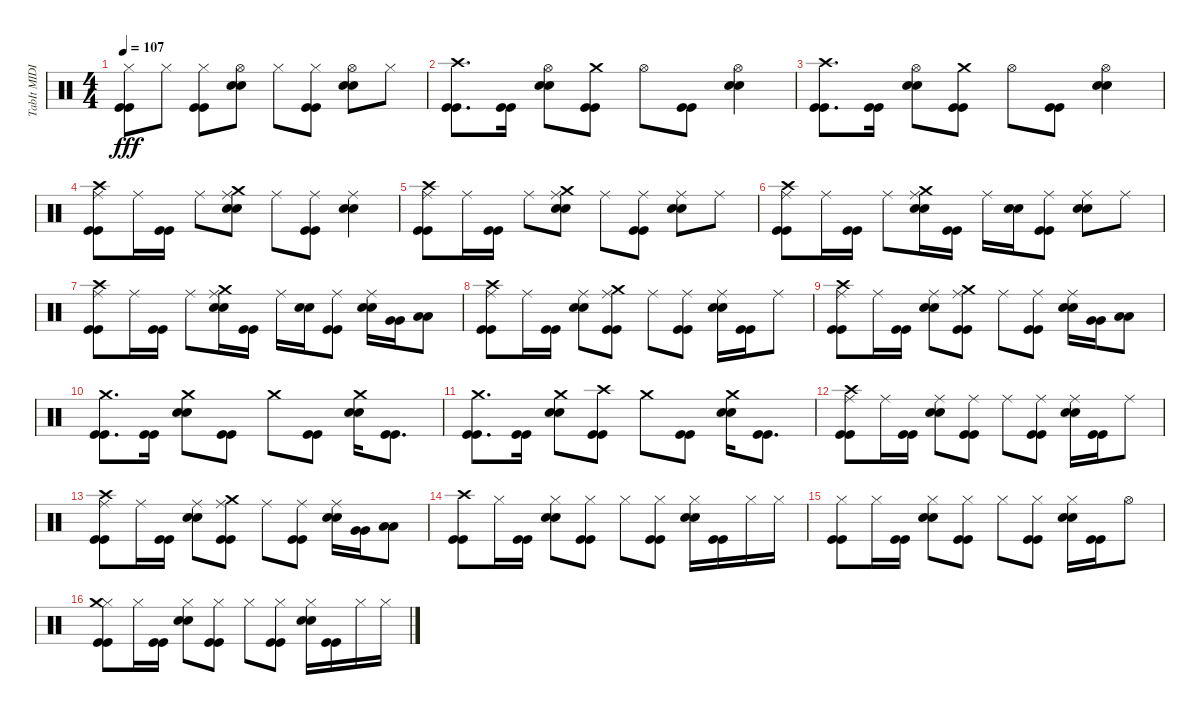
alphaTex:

\track ("TabIt MIDI - Track 5" "TabIt MIDI") {instrument percussion}
\staff {score}
\articulation defaults
\ts (4 4)
\tempo 107
\clef neutral
\ks c
("Kick (hit)" "Kick (hit)" "Hi-Hat (closed)").8{dy fff} "Hi-Hat (closed)".8 ("Kick (hit)" "Kick (hit)" "Hi-Hat (closed)").8 ("Snare (hit) 2" "Snare (hit) 2" "Hi-Hat (open)").8 "Hi-Hat (closed)".8 ("Kick (hit)" "Kick (hit)" "Hi-Hat (closed)").8 ("Snare (hit) 2" "Snare (hit) 2" "Hi-Hat (open)").8 "Hi-Hat (closed)".8 |
("Kick (hit)" "Kick (hit)" "Crash high (hit)").8{d} ("Kick (hit)" "Kick (hit)").16 ("Snare (hit) 2" "Snare (hit) 2" "Hi-Hat (open)").8 ("Kick (hit)" "Kick (hit)" "Crash medium (hit)").8 "Hi-Hat (open)".8 ("Kick (hit)" "Kick (hit)").8 ("Snare (hit) 2" "Snare (hit) 2" "Hi-Hat (open)").4 |
("Kick (hit)" "Kick (hit)" "Crash high (hit)").8{d} ("Kick (hit)" "Kick (hit)").16 ("Snare (hit) 2" "Snare (hit) 2" "Hi-Hat (open)").8 ("Kick (hit)" "Kick (hit)" "Crash medium (hit)").8 "Hi-Hat (open)".8 ("Kick (hit)" "Kick (hit)").8 ("Snare (hit) 2" "Snare (hit) 2" "Hi-Hat (open)").4 |
("Kick (hit)" "Kick (hit)" "Ride (middle)" "Crash high (hit)").8 "Ride (middle)".16 ("Kick (hit)" "Kick (hit)").16 "Ride (middle)".8 ("Snare (hit) 2" "Snare (hit) 2" "Ride (middle)" "Crash medium (hit)").8 "Ride (middle)".8 ("Kick (hit)" "Kick (hit)" "Ride (middle)").8 ("Snare (hit) 2" "Snare (hit) 2" "Ride (middle)").4 |
("Kick (hit)" "Kick (hit)" "Ride (middle)" "Crash high (hit)").8 "Ride (middle)".16 ("Kick (hit)" "Kick (hit)").16 "Ride (middle)".8 ("Snare (hit) 2" "Snare (hit) 2" "Ride (middle)" "Crash medium (hit)").8 "Ride (middle)".8 ("Kick (hit)" "Kick (hit)" "Ride (middle)").8 ("Snare (hit) 2" "Snare (hit) 2" "Ride (middle)").8 "Ride (middle)".8 |
("Kick (hit)" "Kick (hit)" "Ride (middle)" "Crash high (hit)").8 "Ride (middle)".16 ("Kick (hit)" "Kick (hit)").16 "Ride (middle)".8 ("Snare (hit) 2" "Snare (hit) 2" "Ride (middle)" "Crash medium (hit)").16 ("Kick (hit)" "Kick (hit)").16 "Ride (middle)".16 ("Snare (hit) 2" "Snare (hit) 2").16 ("Kick (hit)" "Kick (hit)" "Ride (middle)").8 ("Snare (hit) 2" "Snare (hit) 2" "Ride (middle)").8 "Ride (middle)".8 |
("Kick (hit)" "Kick (hit)" "Ride (middle)" "Crash high (hit)").8 "Ride (middle)".16 ("Kick (hit)" "Kick (hit)").16 "Ride (middle)".8 ("Snare (hit) 2" "Snare (hit) 2" "Ride (middle)" "Crash medium (hit)").16 ("Kick (hit)" "Kick (hit)").16 "Ride (middle)".16 ("Snare (hit) 2" "Snare (hit) 2").16 ("Kick (hit)" "Kick (hit)" "Ride (middle)").8 ("Snare (hit) 2" "Snare (hit) 2" "Ride (middle)").16 ("Very Low Tom (hit)" "Very Low Tom (hit)").16 ("Low Floor Tom (hit)" "Low Floor Tom (hit)").8 |
("Kick (hit)" "Kick (hit)" "Ride (middle)" "Crash high (hit)").8 "Ride (middle)".16 ("Kick (hit)" "Kick (hit)").16 ("Snare (hit) 2" "Snare (hit) 2" "Ride (middle)").8 ("Kick (hit)" "Kick (hit)" "Ride (middle)" "Crash medium (hit)").8 "Ride (middle)".8 ("Kick (hit)" "Kick (hit)" "Ride (middle)").8 ("Snare (hit) 2" "Snare (hit) 2" "Ride (middle)").16 ("Kick (hit)" "Kick (hit)").16 "Ride (middle)".8 |
("Kick (hit)" "Kick (hit)" "Ride (middle)" "Crash high (hit)").8 "Ride (middle)".16 ("Kick (hit)" "Kick (hit)").16 ("Snare (hit) 2" "Snare (hit) 2" "Ride (middle)").8 ("Kick (hit)" "Kick (hit)" "Ride (middle)" "Crash medium (hit)").8 "Ride (middle)".8 ("Kick (hit)" "Kick (hit)" "Ride (middle)").8 ("Snare (hit) 2" "Snare (hit) 2" "Ride (middle)").16 ("Very Low Tom (hit)" "Very Low Tom (hit)").16 ("Low Floor Tom (hit)" "Low Floor Tom (hit)").8 |
("Kick (hit)" "Kick (hit)" "Crash medium (hit)").8{d} ("Kick (hit)" "Kick (hit)").16 ("Snare (hit) 2" "Snare (hit) 2" "Crash medium (hit)").8 ("Kick (hit)" "Kick (hit)").8 "Crash medium (hit)".8 ("Kick (hit)" "Kick (hit)").8 ("Snare (hit) 2" "Snare (hit) 2" "Crash medium (hit)").16 ("Kick (hit)" "Kick (hit)").8{d} |
("Kick (hit)" "Kick (hit)" "Crash medium (hit)").8{d} ("Kick (hit)" "Kick (hit)").16 ("Snare (hit) 2" "Snare (hit) 2" "Crash medium (hit)").8 ("Kick (hit)" "Kick (hit)" "Crash high (hit)").8 "Crash medium (hit)".8 ("Kick (hit)" "Kick (hit)").8 ("Snare (hit) 2" "Snare (hit) 2" "Crash medium (hit)").16 ("Kick (hit)" "Kick (hit)").8{d} |
("Kick (hit)" "Kick (hit)" "Ride (middle)" "Crash high (hit)").8 "Ride (middle)".16 ("Kick (hit)" "Kick (hit)").16 ("Snare (hit) 2" "Snare (hit) 2" "Ride (middle)").8 ("Kick (hit)" "Kick (hit)" "Ride (middle)").8 "Ride (middle)".8 ("Kick (hit)" "Kick (hit)" "Ride (middle)").8 ("Snare (hit) 2" "Snare (hit) 2" "Ride (middle)").16 ("Kick (hit)" "Kick (hit)").16 "Ride (middle)".8 |
("Kick (hit)" "Kick (hit)" "Ride (middle)" "Crash high (hit)").8 "Ride (middle)".16 ("Kick (hit)" "Kick (hit)").16 ("Snare (hit) 2" "Snare (hit) 2" "Ride (middle)").8 ("Kick (hit)" "Kick (hit)" "Ride (middle)" "Crash medium (hit)").8 "Ride (middle)".8 ("Kick (hit)" "Kick (hit)" "Ride (middle)").8 ("Snare (hit) 2" "Snare (hit) 2" "Ride (middle)").16 ("Very Low Tom (hit)" "Very Low Tom (hit)").16 ("Low Floor Tom (hit)" "Low Floor Tom (hit)").8 |
("Kick (hit)" "Kick (hit)" "Crash high (hit)").8{balance 8} "Hi-Hat (closed)".16 ("Kick (hit)" "Kick (hit)").16 ("Snare (hit) 2" "Snare (hit) 2" "Hi-Hat (closed)").8 ("Kick (hit)" "Kick (hit)" "Hi-Hat (closed)").8 "Hi-Hat (closed)".8 ("Kick (hit)" "Kick (hit)" "Hi-Hat (closed)").8 ("Snare (hit) 2" "Snare (hit) 2" "Hi-Hat (closed)").16 ("Kick (hit)" "Kick (hit)").16 "Hi-Hat (closed)".16 "Hi-Hat (closed)".16 |
("Kick (hit)" "Kick (hit)" "Hi-Hat (closed)").8 "Hi-Hat (closed)".16 ("Kick (hit)" "Kick (hit)").16 ("Snare (hit) 2" "Snare (hit) 2" "Hi-Hat (closed)").8 ("Kick (hit)" "Kick (hit)" "Hi-Hat (closed)").8 "Hi-Hat (closed)".8 ("Kick (hit)" "Kick (hit)" "Hi-Hat (closed)").8 ("Snare (hit) 2" "Snare (hit) 2" "Hi-Hat (closed)").16 ("Kick (hit)" "Kick (hit)").16 "Hi-Hat (open)".8 |
("Kick (hit)" "Kick (hit)" "Hi-Hat (closed)" "Crash medium (hit)").8 "Hi-Hat (closed)".16 ("Kick (hit)" "Kick (hit)").16 ("Snare (hit) 2" "Snare (hit) 2" "Hi-Hat (closed)").8 ("Kick (hit)" "Kick (hit)" "Hi-Hat (closed)").8 "Hi-Hat (closed)".8 ("Kick (hit)" "Kick (hit)" "Hi-Hat (closed)").8 ("Snare (hit) 2" "Snare (hit) 2" "Hi-Hat (closed)").16 ("Kick (hit)" "Kick (hit)").16 "Hi-Hat (closed)".16 "Hi-Hat (closed)".16
